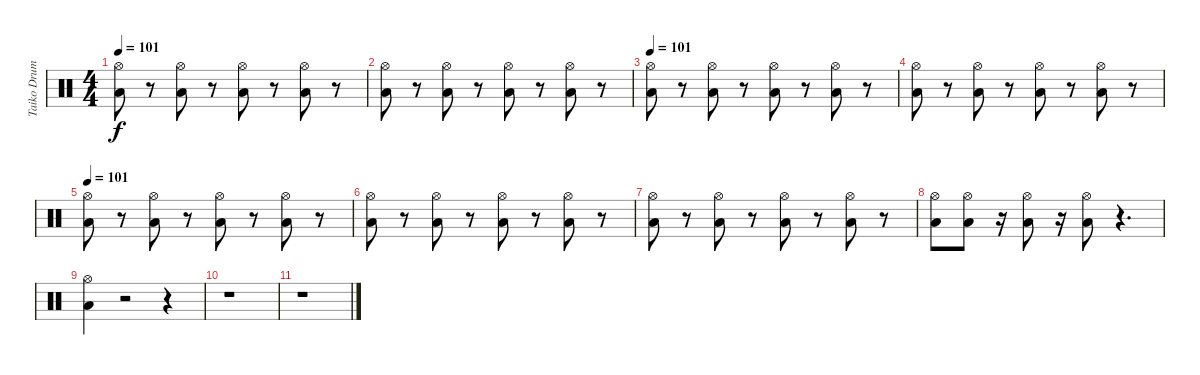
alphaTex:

\track ("Taiko Drum" "Taiko Drum") {instrument percussion}
\staff {score}
\articulation defaults
\ts (4 4)
\tempo 101
\clef neutral
\ks c
("Hi-Hat (open)" "Low Floor Tom (hit)").8{dy f} r.8 ("Low Floor Tom (hit)" "Hi-Hat (open)").8 r.8 ("Low Floor Tom (hit)" "Hi-Hat (open)").8 r.8 ("Low Floor Tom (hit)" "Hi-Hat (open)").8 r.8 |
("Hi-Hat (open)" "Low Floor Tom (hit)").8 r.8 ("Hi-Hat (open)" "Low Floor Tom (hit)").8 r.8 ("Hi-Hat (open)" "Low Floor Tom (hit)").8 r.8 ("Hi-Hat (open)" "Low Floor Tom (hit)").8 r.8 |
\tempo 101
("Hi-Hat (open)" "Low Floor Tom (hit)").8 r.8 ("Low Floor Tom (hit)" "Hi-Hat (open)").8 r.8 ("Low Floor Tom (hit)" "Hi-Hat (open)").8 r.8 ("Low Floor Tom (hit)" "Hi-Hat (open)").8 r.8 |
("Hi-Hat (open)" "Low Floor Tom (hit)").8 r.8 ("Hi-Hat (open)" "Low Floor Tom (hit)").8 r.8 ("Hi-Hat (open)" "Low Floor Tom (hit)").8 r.8 ("Hi-Hat (open)" "Low Floor Tom (hit)").8 r.8 |
\tempo 101
("Hi-Hat (open)" "Low Floor Tom (hit)").8 r.8 ("Low Floor Tom (hit)" "Hi-Hat (open)").8 r.8 ("Low Floor Tom (hit)" "Hi-Hat (open)").8 r.8 ("Low Floor Tom (hit)" "Hi-Hat (open)").8 r.8 |
("Hi-Hat (open)" "Low Floor Tom (hit)").8 r.8 ("Hi-Hat (open)" "Low Floor Tom (hit)").8 r.8 ("Hi-Hat (open)" "Low Floor Tom (hit)").8 r.8 ("Hi-Hat (open)" "Low Floor Tom (hit)").8 r.8 |
("Hi-Hat (open)" "Low Floor Tom (hit)").8 r.8 ("Low Floor Tom (hit)" "Hi-Hat (open)").8 r.8 ("Low Floor Tom (hit)" "Hi-Hat (open)").8 r.8 ("Low Floor Tom (hit)" "Hi-Hat (open)").8 r.8 |
("Hi-Hat (open)" "Low Floor Tom (hit)").8 ("Low Floor Tom (hit)" "Hi-Hat (open)").8 r.16 ("Low Floor Tom (hit)" "Hi-Hat (open)").8 r.16 ("Low Floor Tom (hit)" "Hi-Hat (open)").8 r.4{d} |
("Low Floor Tom (hit)" "Hi-Hat (open)").4 r.2 r.4 |
r.1 |
r.1
